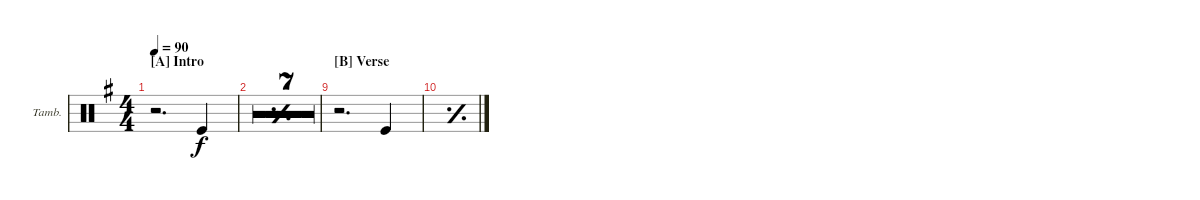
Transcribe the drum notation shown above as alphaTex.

\defaultSystemsLayout 4
\bracketExtendMode groupsimilarinstruments
\firstSystemTrackNameOrientation horizontal
\otherSystemsTrackNameOrientation horizontal
\track ("Tambourine" "Tamb.") {multiBarRest instrument percussion}
\staff {score}
\articulation defaults
\ts (4 4)
\section ("A" "Intro")
\tempo 90
\clef neutral
\ks g
r.2{d dy f} "Kick (hit)".4 |
\simile simple
|
|
|
|
|
|
|
\section ("B" "Verse")
\simile none
r.2{d} "Kick (hit)".4 |
\simile simple
